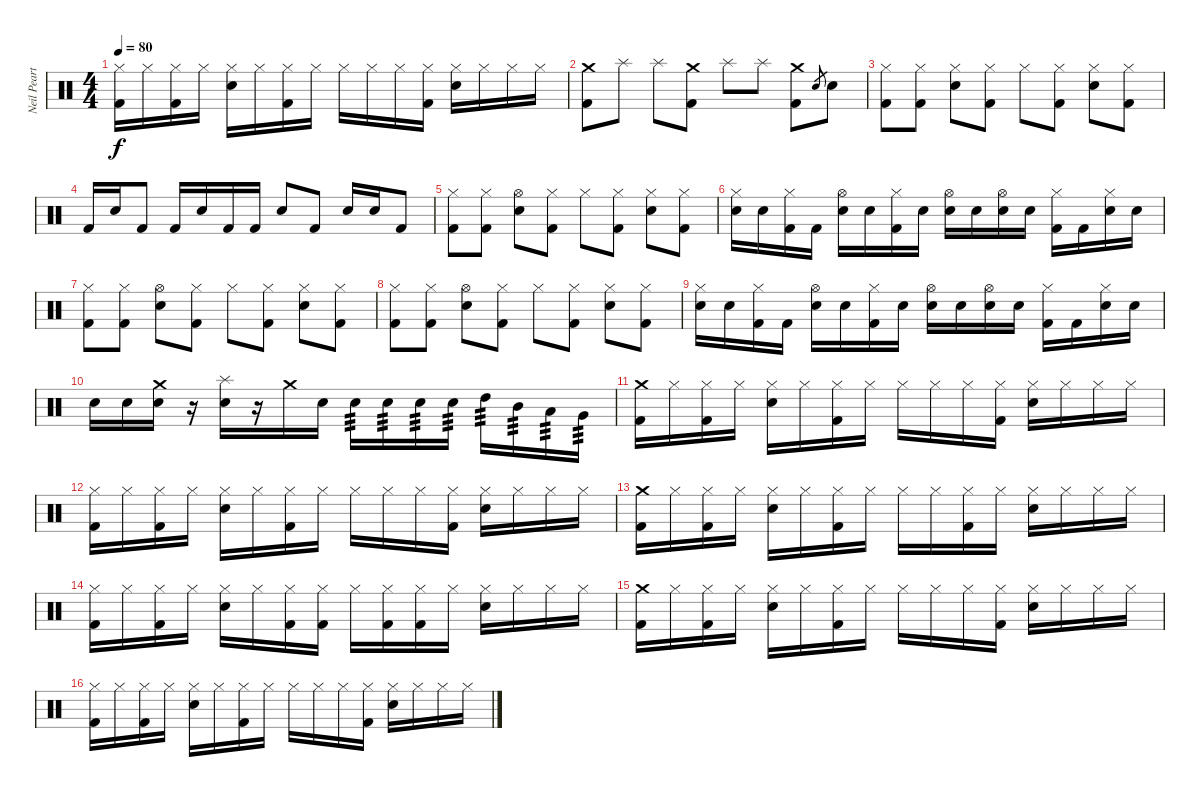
\track ("Neil Peart" "Neil Peart") {instrument percussion}
\staff {score}
\articulation defaults
\ts (4 4)
\tempo 80
\clef neutral
\ks c
("Hi-Hat (closed)" "Kick (hit) 2").16{dy f} "Hi-Hat (closed)".16 ("Hi-Hat (closed)" "Kick (hit) 2").16 "Hi-Hat (closed)".16 ("Hi-Hat (closed)" "Electric Snare (hit)").16 "Hi-Hat (closed)".16 ("Hi-Hat (closed)" "Kick (hit) 2").16 "Hi-Hat (closed)".16 "Hi-Hat (closed)".16 "Hi-Hat (closed)".16 "Hi-Hat (closed)".16 ("Hi-Hat (closed)" "Kick (hit) 2").16 ("Hi-Hat (closed)" "Electric Snare (hit)").16 "Hi-Hat (closed)".16 "Hi-Hat (closed)".16 "Hi-Hat (closed)".16 |
("Crash medium (hit)" "Kick (hit) 2").8 "Splash (hit)".8 "Splash (hit)".8 ("Crash medium (hit)" "Kick (hit) 2").8 "Splash (hit)".8 "Splash (hit)".8 ("Crash medium (hit)" "Kick (hit) 2").8 "Electric Snare (hit)".8{gr} "Electric Snare (hit)".8 |
("Hi-Hat (closed)" "Kick (hit) 2").8 ("Hi-Hat (closed)" "Kick (hit) 2").8 ("Hi-Hat (closed)" "Electric Snare (hit)").8 ("Hi-Hat (closed)" "Kick (hit) 2").8 "Hi-Hat (closed)".8 ("Hi-Hat (closed)" "Kick (hit) 2").8 ("Hi-Hat (closed)" "Electric Snare (hit)").8 ("Hi-Hat (closed)" "Kick (hit) 2").8 |
"Kick (hit) 2".16 "Electric Snare (hit)".16 "Kick (hit) 2".8 "Kick (hit) 2".16 "Electric Snare (hit)".16 "Kick (hit) 2".16 "Kick (hit) 2".16 "Electric Snare (hit)".8 "Kick (hit) 2".8 "Electric Snare (hit)".16 "Electric Snare (hit)".16 "Kick (hit) 2".8 |
("Hi-Hat (closed)" "Kick (hit) 2").8 ("Hi-Hat (closed)" "Kick (hit) 2").8 ("Hi-Hat (open)" "Electric Snare (hit)").8 ("Hi-Hat (closed)" "Kick (hit) 2").8 "Hi-Hat (closed)".8 ("Hi-Hat (closed)" "Kick (hit) 2").8 ("Hi-Hat (closed)" "Electric Snare (hit)").8 ("Hi-Hat (closed)" "Kick (hit) 2").8 |
("Hi-Hat (closed)" "Electric Snare (hit)").16 "Snare (hit)"{x}.16 ("Hi-Hat (closed)" "Kick (hit) 2").16 "Kick (hit) 2".16 ("Hi-Hat (open)" "Electric Snare (hit)").16 "Snare (hit)"{x}.16 ("Hi-Hat (closed)" "Kick (hit) 2").16 "Snare (hit)"{x}.16 ("Hi-Hat (open)" "Electric Snare (hit)").16 "Snare (hit)"{x}.16 ("Hi-Hat (open)" "Electric Snare (hit)").16 "Snare (hit)"{x}.16 ("Hi-Hat (closed)" "Kick (hit) 2").16 "Kick (hit) 2".16 ("Hi-Hat (closed)" "Electric Snare (hit)").16 "Snare (hit)"{x}.16 |
("Hi-Hat (closed)" "Kick (hit) 2").8 ("Hi-Hat (closed)" "Kick (hit) 2").8 ("Hi-Hat (open)" "Electric Snare (hit)").8 ("Hi-Hat (closed)" "Kick (hit) 2").8 "Hi-Hat (closed)".8 ("Hi-Hat (closed)" "Kick (hit) 2").8 ("Hi-Hat (closed)" "Electric Snare (hit)").8 ("Hi-Hat (closed)" "Kick (hit) 2").8 |
("Hi-Hat (closed)" "Kick (hit) 2").8 ("Hi-Hat (closed)" "Kick (hit) 2").8 ("Hi-Hat (open)" "Electric Snare (hit)").8 ("Hi-Hat (closed)" "Kick (hit) 2").8 "Hi-Hat (closed)".8 ("Hi-Hat (closed)" "Kick (hit) 2").8 ("Hi-Hat (closed)" "Electric Snare (hit)").8 ("Hi-Hat (closed)" "Kick (hit) 2").8 |
("Hi-Hat (closed)" "Electric Snare (hit)").16 "Snare (hit)"{x}.16 ("Hi-Hat (closed)" "Kick (hit) 2").16 "Kick (hit) 2".16 ("Hi-Hat (open)" "Electric Snare (hit)").16 "Snare (hit)"{x}.16 ("Hi-Hat (closed)" "Kick (hit) 2").16 "Snare (hit)"{x}.16 ("Hi-Hat (open)" "Electric Snare (hit)").16 "Snare (hit)"{x}.16 ("Hi-Hat (open)" "Electric Snare (hit)").16 "Snare (hit)"{x}.16 ("Hi-Hat (closed)" "Kick (hit) 2").16 "Kick (hit) 2".16 ("Hi-Hat (closed)" "Electric Snare (hit)").16 "Snare (hit)"{x}.16 |
"Electric Snare (hit)".16 "Electric Snare (hit)".16 ("Crash medium (hit)" "Electric Snare (hit)").16 r.16 ("Splash (hit)" "Electric Snare (hit)").16 r.16 "Crash medium (hit)"{x}.16 "Snare (hit)"{x}.16 "Electric Snare (hit)".16{tp 3} "Electric Snare (hit)".16{tp 3} "Electric Snare (hit)".16{tp 3} "Electric Snare (hit)".16{tp 3} "High Tom (hit)".16{tp 3} "Mid Tom (hit)".16{tp 3} "Low Tom (hit)".16{tp 3} "Very Low Tom (hit)".16{tp 3} |
("Crash medium (hit)" "Kick (hit) 2").16 "Hi-Hat (closed)".16 ("Hi-Hat (closed)" "Kick (hit) 2").16 "Hi-Hat (closed)".16 ("Hi-Hat (closed)" "Electric Snare (hit)").16 "Hi-Hat (closed)".16 ("Hi-Hat (closed)" "Kick (hit) 2").16 "Hi-Hat (closed)".16 "Hi-Hat (closed)".16 "Hi-Hat (closed)".16 "Hi-Hat (closed)".16 ("Hi-Hat (closed)" "Kick (hit) 2").16 ("Hi-Hat (closed)" "Electric Snare (hit)").16 "Hi-Hat (closed)".16 "Hi-Hat (closed)".16 "Hi-Hat (closed)".16 |
("Hi-Hat (closed)" "Kick (hit) 2").16 "Hi-Hat (closed)".16 ("Hi-Hat (closed)" "Kick (hit) 2").16 "Hi-Hat (closed)".16 ("Hi-Hat (closed)" "Electric Snare (hit)").16 "Hi-Hat (closed)".16 ("Hi-Hat (closed)" "Kick (hit) 2").16 "Hi-Hat (closed)".16 "Hi-Hat (closed)".16 "Hi-Hat (closed)".16 "Hi-Hat (closed)".16 ("Hi-Hat (closed)" "Kick (hit) 2").16 ("Hi-Hat (closed)" "Electric Snare (hit)").16 "Hi-Hat (closed)".16 "Hi-Hat (closed)".16 "Hi-Hat (closed)".16 |
("Crash medium (hit)" "Kick (hit) 2").16 "Hi-Hat (closed)".16 ("Hi-Hat (closed)" "Kick (hit) 2").16 "Hi-Hat (closed)".16 ("Hi-Hat (closed)" "Electric Snare (hit)").16 "Hi-Hat (closed)".16 ("Hi-Hat (closed)" "Kick (hit) 2").16 "Hi-Hat (closed)".16 "Hi-Hat (closed)".16 "Hi-Hat (closed)".16 ("Hi-Hat (closed)" "Kick (hit) 2").16 "Hi-Hat (closed)".16 ("Hi-Hat (closed)" "Electric Snare (hit)").16 "Hi-Hat (closed)".16 "Hi-Hat (closed)".16 "Hi-Hat (closed)".16 |
("Hi-Hat (closed)" "Kick (hit) 2").16 "Hi-Hat (closed)".16 ("Hi-Hat (closed)" "Kick (hit) 2").16 "Hi-Hat (closed)".16 ("Hi-Hat (closed)" "Electric Snare (hit)").16 "Hi-Hat (closed)".16 ("Hi-Hat (closed)" "Kick (hit) 2").16 ("Hi-Hat (closed)" "Kick (hit) 2").16 "Hi-Hat (closed)".16 ("Hi-Hat (closed)" "Kick (hit) 2").16 ("Hi-Hat (closed)" "Kick (hit) 2").16 "Hi-Hat (closed)".16 ("Hi-Hat (closed)" "Electric Snare (hit)").16 "Hi-Hat (closed)".16 "Hi-Hat (closed)".16 "Hi-Hat (closed)".16 |
("Crash medium (hit)" "Kick (hit) 2").16 "Hi-Hat (closed)".16 ("Hi-Hat (closed)" "Kick (hit) 2").16 "Hi-Hat (closed)".16 ("Hi-Hat (closed)" "Electric Snare (hit)").16 "Hi-Hat (closed)".16 ("Hi-Hat (closed)" "Kick (hit) 2").16 "Hi-Hat (closed)".16 "Hi-Hat (closed)".16 "Hi-Hat (closed)".16 "Hi-Hat (closed)".16 ("Hi-Hat (closed)" "Kick (hit) 2").16 ("Hi-Hat (closed)" "Electric Snare (hit)").16 "Hi-Hat (closed)".16 "Hi-Hat (closed)".16 "Hi-Hat (closed)".16 |
("Hi-Hat (closed)" "Kick (hit) 2").16 "Hi-Hat (closed)".16 ("Hi-Hat (closed)" "Kick (hit) 2").16 "Hi-Hat (closed)".16 ("Hi-Hat (closed)" "Electric Snare (hit)").16 "Hi-Hat (closed)".16 ("Hi-Hat (closed)" "Kick (hit) 2").16 "Hi-Hat (closed)".16 "Hi-Hat (closed)".16 "Hi-Hat (closed)".16 "Hi-Hat (closed)".16 ("Hi-Hat (closed)" "Kick (hit) 2").16 ("Hi-Hat (closed)" "Electric Snare (hit)").16 "Hi-Hat (closed)".16 "Hi-Hat (closed)".16 "Hi-Hat (closed)".16
